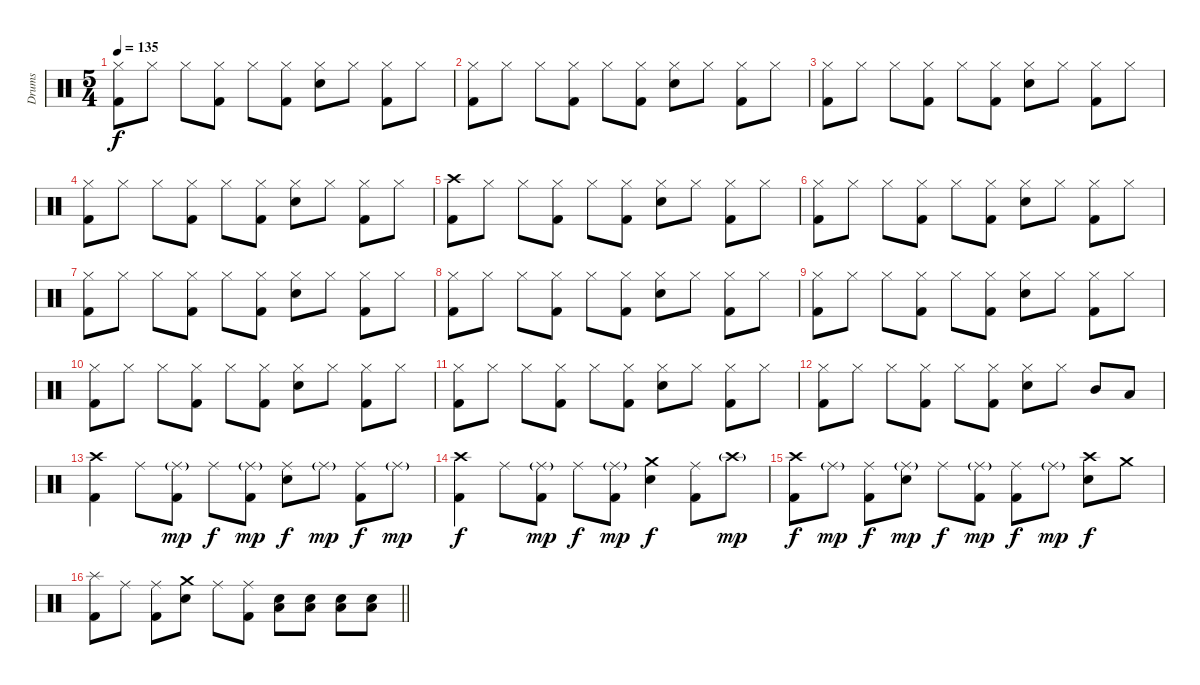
\track ("Drums" "Drums") {instrument percussion}
\staff {score}
\articulation defaults
\ts (5 4)
\tempo 135
\clef neutral
\ks c
("Hi-Hat (closed)" "Kick (hit) 2").8{dy f} "Hi-Hat (closed)".8 "Hi-Hat (closed)".8 ("Hi-Hat (closed)" "Kick (hit) 2").8 "Hi-Hat (closed)".8 ("Hi-Hat (closed)" "Kick (hit) 2").8 ("Hi-Hat (closed)" "Snare (hit) 2").8 "Hi-Hat (closed)".8 ("Hi-Hat (closed)" "Kick (hit) 2").8 "Hi-Hat (closed)".8 |
("Hi-Hat (closed)" "Kick (hit) 2").8 "Hi-Hat (closed)".8 "Hi-Hat (closed)".8 ("Hi-Hat (closed)" "Kick (hit) 2").8 "Hi-Hat (closed)".8 ("Hi-Hat (closed)" "Kick (hit) 2").8 ("Hi-Hat (closed)" "Snare (hit) 2").8 "Hi-Hat (closed)".8 ("Hi-Hat (closed)" "Kick (hit) 2").8 "Hi-Hat (closed)".8 |
("Hi-Hat (closed)" "Kick (hit) 2").8 "Hi-Hat (closed)".8 "Hi-Hat (closed)".8 ("Hi-Hat (closed)" "Kick (hit) 2").8 "Hi-Hat (closed)".8 ("Hi-Hat (closed)" "Kick (hit) 2").8 ("Hi-Hat (closed)" "Snare (hit) 2").8 "Hi-Hat (closed)".8 ("Hi-Hat (closed)" "Kick (hit) 2").8 "Hi-Hat (closed)".8 |
("Hi-Hat (closed)" "Kick (hit) 2").8 "Hi-Hat (closed)".8 "Hi-Hat (closed)".8 ("Hi-Hat (closed)" "Kick (hit) 2").8 "Hi-Hat (closed)".8 ("Hi-Hat (closed)" "Kick (hit) 2").8 ("Hi-Hat (closed)" "Snare (hit) 2").8 "Hi-Hat (closed)".8 ("Hi-Hat (closed)" "Kick (hit) 2").8 "Hi-Hat (closed)".8 |
("Crash high (hit)" "Kick (hit) 2").8 "Hi-Hat (closed)".8 "Hi-Hat (closed)".8 ("Hi-Hat (closed)" "Kick (hit) 2").8 "Hi-Hat (closed)".8 ("Hi-Hat (closed)" "Kick (hit) 2").8 ("Hi-Hat (closed)" "Snare (hit) 2").8 "Hi-Hat (closed)".8 ("Hi-Hat (closed)" "Kick (hit) 2").8 "Hi-Hat (closed)".8 |
("Hi-Hat (closed)" "Kick (hit) 2").8 "Hi-Hat (closed)".8 "Hi-Hat (closed)".8 ("Hi-Hat (closed)" "Kick (hit) 2").8 "Hi-Hat (closed)".8 ("Hi-Hat (closed)" "Kick (hit) 2").8 ("Hi-Hat (closed)" "Snare (hit) 2").8 "Hi-Hat (closed)".8 ("Hi-Hat (closed)" "Kick (hit) 2").8 "Hi-Hat (closed)".8 |
("Hi-Hat (closed)" "Kick (hit) 2").8 "Hi-Hat (closed)".8 "Hi-Hat (closed)".8 ("Hi-Hat (closed)" "Kick (hit) 2").8 "Hi-Hat (closed)".8 ("Hi-Hat (closed)" "Kick (hit) 2").8 ("Hi-Hat (closed)" "Snare (hit) 2").8 "Hi-Hat (closed)".8 ("Hi-Hat (closed)" "Kick (hit) 2").8 "Hi-Hat (closed)".8 |
("Hi-Hat (closed)" "Kick (hit) 2").8 "Hi-Hat (closed)".8 "Hi-Hat (closed)".8 ("Hi-Hat (closed)" "Kick (hit) 2").8 "Hi-Hat (closed)".8 ("Hi-Hat (closed)" "Kick (hit) 2").8 ("Hi-Hat (closed)" "Snare (hit) 2").8 "Hi-Hat (closed)".8 ("Hi-Hat (closed)" "Kick (hit) 2").8 "Hi-Hat (closed)".8 |
("Hi-Hat (closed)" "Kick (hit) 2").8 "Hi-Hat (closed)".8 "Hi-Hat (closed)".8 ("Hi-Hat (closed)" "Kick (hit) 2").8 "Hi-Hat (closed)".8 ("Hi-Hat (closed)" "Kick (hit) 2").8 ("Hi-Hat (closed)" "Snare (hit) 2").8 "Hi-Hat (closed)".8 ("Hi-Hat (closed)" "Kick (hit) 2").8 "Hi-Hat (closed)".8 |
("Hi-Hat (closed)" "Kick (hit) 2").8 "Hi-Hat (closed)".8 "Hi-Hat (closed)".8 ("Hi-Hat (closed)" "Kick (hit) 2").8 "Hi-Hat (closed)".8 ("Hi-Hat (closed)" "Kick (hit) 2").8 ("Hi-Hat (closed)" "Snare (hit) 2").8 "Hi-Hat (closed)".8 ("Hi-Hat (closed)" "Kick (hit) 2").8 "Hi-Hat (closed)".8 |
("Hi-Hat (closed)" "Kick (hit) 2").8 "Hi-Hat (closed)".8 "Hi-Hat (closed)".8 ("Hi-Hat (closed)" "Kick (hit) 2").8 "Hi-Hat (closed)".8 ("Hi-Hat (closed)" "Kick (hit) 2").8 ("Hi-Hat (closed)" "Snare (hit) 2").8 "Hi-Hat (closed)".8 ("Hi-Hat (closed)" "Kick (hit) 2").8 "Hi-Hat (closed)".8 |
("Hi-Hat (closed)" "Kick (hit) 2").8 "Hi-Hat (closed)".8 "Hi-Hat (closed)".8 ("Hi-Hat (closed)" "Kick (hit) 2").8 "Hi-Hat (closed)".8 ("Hi-Hat (closed)" "Kick (hit) 2").8 ("Hi-Hat (closed)" "Snare (hit) 2").8 "Hi-Hat (closed)".8 "Mid Tom (hit)".8 "Low Tom (hit)".8 |
("Crash high (hit)" "Kick (hit) 2").4 "Ride (middle)".8 ("Ride (middle)"{g} "Kick (hit) 2").8{dy mp} "Ride (middle)".8{dy f} ("Ride (middle)"{g} "Kick (hit) 2").8{dy mp} ("Ride (middle)" "Snare (hit) 2").8{dy f} "Ride (middle)"{g}.8{dy mp} ("Ride (middle)" "Kick (hit) 2").8{dy f} "Ride (middle)"{g}.8{dy mp} |
("Crash high (hit)" "Kick (hit) 2").4{dy f} "Ride (middle)".8 ("Ride (middle)"{g} "Kick (hit) 2").8{dy mp} "Ride (middle)".8{dy f} ("Ride (middle)"{g} "Kick (hit) 2").8{dy mp} ("Crash medium (hit)" "Snare (hit) 2").4{dy f} ("Ride (middle)" "Kick (hit) 2").8 "Crash high (hit)"{g}.8{dy mp} |
("Crash high (hit)" "Kick (hit) 2").8{dy f} "Ride (middle)"{g}.8{dy mp} ("Ride (middle)" "Kick (hit) 2").8{dy f} ("Ride (middle)"{g} "Snare (hit) 2").8{dy mp} "Ride (middle)".8{dy f} ("Ride (middle)"{g} "Kick (hit) 2").8{dy mp} ("Ride (middle)" "Kick (hit) 2").8{dy f} "Ride (middle)"{g}.8{dy mp} ("Crash high (hit)" "Snare (hit) 2").8{dy f} "Crash medium (hit)".8 |
\barLineRight lightlight
("Splash (hit)" "Kick (hit) 2").8 "Ride (middle)".8 ("Ride (middle)" "Kick (hit) 2").8 ("Crash medium (hit)" "Snare (hit) 2").8 "Ride (middle)".8 ("Ride (middle)" "Kick (hit) 2").8 ("Low Tom (hit)" "Snare (hit) 2").8 ("Low Tom (hit)" "Snare (hit) 2").8 ("Low Tom (hit)" "Snare (hit) 2").8 ("Low Tom (hit)" "Snare (hit) 2").8
